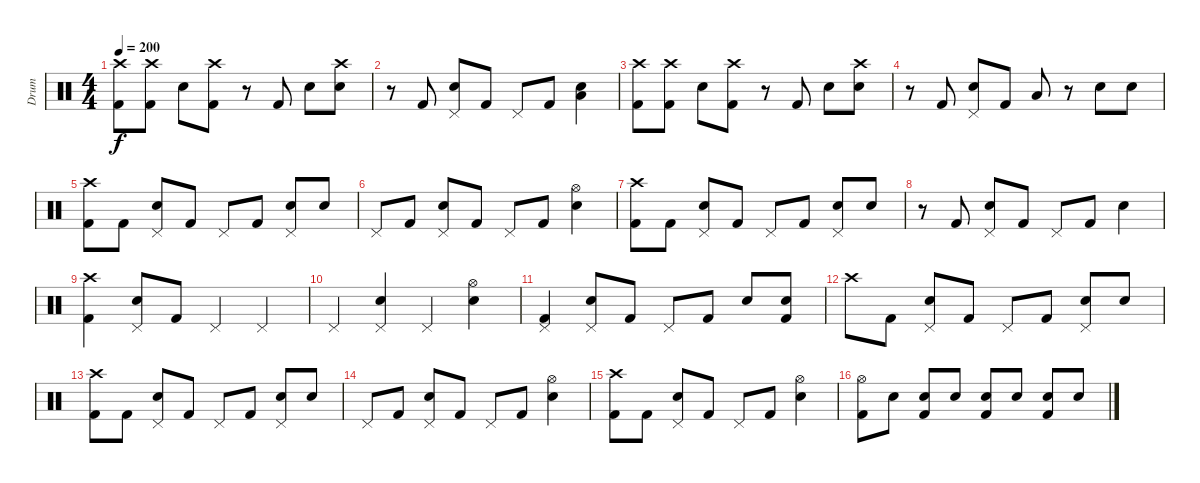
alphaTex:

\track ("Drum" "Drum") {instrument percussion}
\staff {score}
\articulation defaults
\ts (4 4)
\tempo 200
\clef neutral
\ks c
("Crash high (hit)" "Kick (hit) 2").8{dy f} ("Crash high (hit)" "Kick (hit) 2").8 "Electric Snare (hit)".8 ("Crash high (hit)" "Kick (hit) 2").8 r.8 "Kick (hit) 2".8 "Electric Snare (hit)".8 ("Crash high (hit)" "Electric Snare (hit)").8 |
r.8 "Kick (hit) 2".8 ("Pedal Hi-Hat (hit)" "Electric Snare (hit)").8 "Kick (hit) 2".8 "Pedal Hi-Hat (hit)".8 "Kick (hit) 2".8 ("Electric Snare (hit)" "Low Floor Tom (hit)").4 |
("Crash high (hit)" "Kick (hit) 2").8 ("Crash high (hit)" "Kick (hit) 2").8 "Electric Snare (hit)".8 ("Crash high (hit)" "Kick (hit) 2").8 r.8 "Kick (hit) 2".8 "Electric Snare (hit)".8 ("Crash high (hit)" "Electric Snare (hit)").8 |
r.8 "Kick (hit) 2".8 ("Pedal Hi-Hat (hit)" "Electric Snare (hit)").8 "Kick (hit) 2".8 "Low Floor Tom (hit)".8 r.8 "Electric Snare (hit)".8 "Electric Snare (hit)".8 |
("Crash high (hit)" "Kick (hit) 2").8 "Kick (hit) 2".8 ("Pedal Hi-Hat (hit)" "Electric Snare (hit)").8 "Kick (hit) 2".8 "Pedal Hi-Hat (hit)".8 "Kick (hit) 2".8 ("Pedal Hi-Hat (hit)" "Electric Snare (hit)").8 "Electric Snare (hit)".8 |
"Pedal Hi-Hat (hit)".8 "Kick (hit) 2".8 ("Pedal Hi-Hat (hit)" "Electric Snare (hit)").8 "Kick (hit) 2".8 "Pedal Hi-Hat (hit)".8 "Kick (hit) 2".8 ("Hi-Hat (open)" "Electric Snare (hit)").4 |
("Crash high (hit)" "Kick (hit) 2").8 "Kick (hit) 2".8 ("Pedal Hi-Hat (hit)" "Electric Snare (hit)").8 "Kick (hit) 2".8 "Pedal Hi-Hat (hit)".8 "Kick (hit) 2".8 ("Pedal Hi-Hat (hit)" "Electric Snare (hit)").8 "Electric Snare (hit)".8 |
r.8 "Kick (hit) 2".8 ("Pedal Hi-Hat (hit)" "Electric Snare (hit)").8 "Kick (hit) 2".8 "Pedal Hi-Hat (hit)".8 "Kick (hit) 2".8 "Electric Snare (hit)".4 |
("Crash high (hit)" "Kick (hit) 2").4 ("Pedal Hi-Hat (hit)" "Electric Snare (hit)").8 "Kick (hit) 2".8 "Pedal Hi-Hat (hit)".4 "Pedal Hi-Hat (hit)".4 |
"Pedal Hi-Hat (hit)".4 ("Pedal Hi-Hat (hit)" "Electric Snare (hit)").4 "Pedal Hi-Hat (hit)".4 ("Hi-Hat (open)" "Electric Snare (hit)").4 |
("Pedal Hi-Hat (hit)" "Kick (hit) 2").4 ("Pedal Hi-Hat (hit)" "Electric Snare (hit)").8 "Kick (hit) 2".8 "Pedal Hi-Hat (hit)".8 "Kick (hit) 2".8 "Electric Snare (hit)".8 ("Electric Snare (hit)" "Kick (hit) 2").8 |
"Crash high (hit)".8 "Kick (hit) 2".8 ("Pedal Hi-Hat (hit)" "Electric Snare (hit)").8 "Kick (hit) 2".8 "Pedal Hi-Hat (hit)".8 "Kick (hit) 2".8 ("Pedal Hi-Hat (hit)" "Electric Snare (hit)").8 "Electric Snare (hit)".8 |
("Crash high (hit)" "Kick (hit) 2").8 "Kick (hit) 2".8 ("Pedal Hi-Hat (hit)" "Electric Snare (hit)").8 "Kick (hit) 2".8 "Pedal Hi-Hat (hit)".8 "Kick (hit) 2".8 ("Pedal Hi-Hat (hit)" "Electric Snare (hit)").8 "Electric Snare (hit)".8 |
"Pedal Hi-Hat (hit)".8 "Kick (hit) 2".8 ("Pedal Hi-Hat (hit)" "Electric Snare (hit)").8 "Kick (hit) 2".8 "Pedal Hi-Hat (hit)".8 "Kick (hit) 2".8 ("Hi-Hat (open)" "Electric Snare (hit)").4 |
("Crash high (hit)" "Kick (hit) 2").8 "Kick (hit) 2".8 ("Pedal Hi-Hat (hit)" "Electric Snare (hit)").8 "Kick (hit) 2".8 "Pedal Hi-Hat (hit)".8 "Kick (hit) 2".8 ("Hi-Hat (open)" "Electric Snare (hit)").4 |
("Hi-Hat (open)" "Kick (hit) 2").8 "Electric Snare (hit)".8 ("Electric Snare (hit)" "Kick (hit) 2").8 "Electric Snare (hit)".8 ("Electric Snare (hit)" "Kick (hit) 2").8 "Electric Snare (hit)".8 ("Electric Snare (hit)" "Kick (hit) 2").8 "Electric Snare (hit)".8
